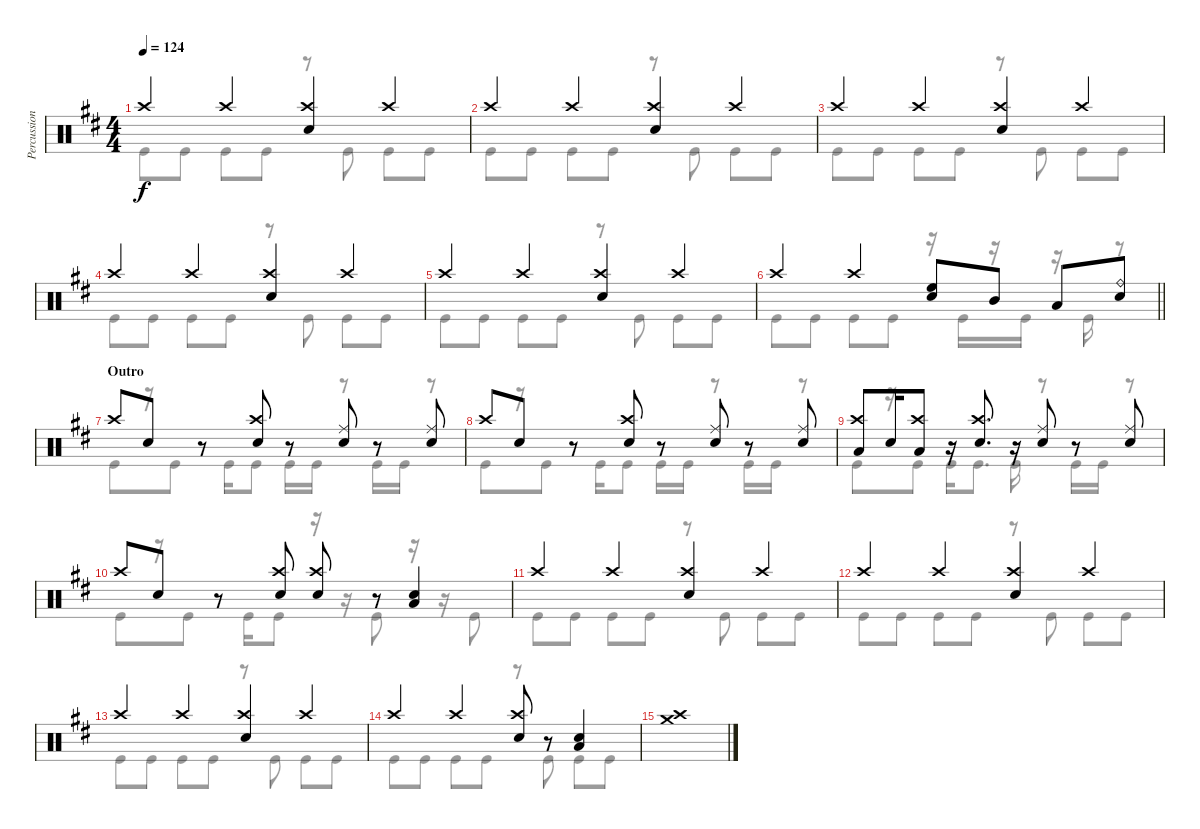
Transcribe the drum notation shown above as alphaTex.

\track ("Percussion" "Percussion") {instrument percussion}
\staff {score}
\articulation defaults
\voice
\ts (4 4)
\tempo 124
\clef neutral
\ks d "Crash high (hit)".4{dy f} "Crash high (hit)".4
("Crash high (hit)" "Snare (hit) 2").4 "Crash high (hit)".4 |
"Crash high (hit)".4 "Crash high (hit)".4 ("Crash high (hit)" "Snare (hit) 2").4 "Crash high (hit)".4 |
"Crash high (hit)".4 "Crash high (hit)".4 ("Crash high (hit)" "Snare (hit) 2").4 "Crash high (hit)".4 |
"Crash high (hit)".4 "Crash high (hit)".4 ("Crash high (hit)" "Snare (hit) 2").4 "Crash high (hit)".4 |
"Crash high (hit)".4 "Crash high (hit)".4 ("Crash high (hit)" "Snare (hit) 2").4 "Crash high (hit)".4 |
\barLineRight lightlight "Crash high (hit)".4 "Crash high (hit)".4
("High Floor Tom (hit)" "Snare (hit) 2").8 "Mid Tom (hit)".8 "Low Tom (hit)".8 ("Ride (bell)" "Snare (hit) 2").8 |
\section ("" "Outro")
"Crash high (hit)".8 "Snare (hit) 2".8 r.8 ("Crash high (hit)" "Snare (hit) 2").8 r.8 ("Ride (middle)" "Snare (hit) 2").8 r.8 ("Ride (middle)" "Snare (hit) 2").8 |
"Crash high (hit)".8 "Snare (hit) 2".8 r.8 ("Crash high (hit)" "Snare (hit) 2").8 r.8 ("Ride (middle)" "Snare (hit) 2").8 r.8 ("Ride (middle)" "Snare (hit) 2").8 |
("Crash high (hit)" "Low Tom (hit)").8 "Snare (hit) 2".16 ("Crash high (hit)" "Low Tom (hit)").8 r.16 ("Crash high (hit)" "Snare (hit) 2").8{d} r.16 ("Ride (middle)" "Snare (hit) 2").8 r.8 ("Ride (middle)" "Snare (hit) 2").8 |
"Crash high (hit)".8 "Snare (hit) 2".8 r.8 ("Crash high (hit)" "Snare (hit) 2").8 ("Crash high (hit)" "Snare (hit) 2").8 r.8 ("Low Tom (hit)" "Snare (hit) 2").4 |
"Crash high (hit)".4 "Crash high (hit)".4 ("Crash high (hit)" "Snare (hit) 2").4 "Crash high (hit)".4 |
"Crash high (hit)".4 "Crash high (hit)".4 ("Crash high (hit)" "Snare (hit) 2").4 "Crash high (hit)".4 |
"Crash high (hit)".4 "Crash high (hit)".4 ("Crash high (hit)" "Snare (hit) 2").4 "Crash high (hit)".4 |
"Crash high (hit)".4 "Crash high (hit)".4 ("Crash high (hit)" "Snare (hit) 2").8 r.8 ("Low Tom (hit)" "Snare (hit) 2").4 |
("Crash high (hit)" "Crash medium (hit)").1
\voice
\clef neutral
\ottava regular
\simile none
\ks d "Kick (hit)".8{dy f} "Kick (hit)".8 "Kick (hit)".8 "Kick (hit)".8
r.8 "Kick (hit)".8 "Kick (hit)".8 "Kick (hit)".8 |
"Kick (hit)".8 "Kick (hit)".8 "Kick (hit)".8 "Kick (hit)".8 r.8 "Kick (hit)".8 "Kick (hit)".8 "Kick (hit)".8 |
"Kick (hit)".8 "Kick (hit)".8 "Kick (hit)".8 "Kick (hit)".8 r.8 "Kick (hit)".8 "Kick (hit)".8 "Kick (hit)".8 |
"Kick (hit)".8 "Kick (hit)".8 "Kick (hit)".8 "Kick (hit)".8 r.8 "Kick (hit)".8 "Kick (hit)".8 "Kick (hit)".8 |
"Kick (hit)".8 "Kick (hit)".8 "Kick (hit)".8 "Kick (hit)".8 r.8 "Kick (hit)".8 "Kick (hit)".8 "Kick (hit)".8 |
\barLineRight lightlight "Kick (hit)".8 "Kick (hit)".8 "Kick (hit)".8 "Kick (hit)".8
r.16 "Kick (hit)".16 r.16 "Kick (hit)".16 r.16 "Kick (hit)".16 r.8 |
"Kick (hit)".8 r.16 "Kick (hit)".8 "Kick (hit)".16 "Kick (hit)".8 "Kick (hit)".16 "Kick (hit)".16 r.8 "Kick (hit)".16 "Kick (hit)".16 r.8 |
"Kick (hit)".8 r.16 "Kick (hit)".8 "Kick (hit)".16 "Kick (hit)".8 "Kick (hit)".16 "Kick (hit)".16 r.8 "Kick (hit)".16 "Kick (hit)".16 r.8 |
"Kick (hit)".8 r.16 "Kick (hit)".8 "Kick (hit)".16 "Kick (hit)".8{d} "Kick (hit)".16 r.8 "Kick (hit)".16 "Kick (hit)".16 r.8 |
"Kick (hit)".8 r.16 "Kick (hit)".8 "Kick (hit)".16 "Kick (hit)".8 r.16 r.16 "Kick (hit)".8 r.16 r.16 "Kick (hit)".8 |
"Kick (hit)".8 "Kick (hit)".8 "Kick (hit)".8 "Kick (hit)".8 r.8 "Kick (hit)".8 "Kick (hit)".8 "Kick (hit)".8 |
"Kick (hit)".8 "Kick (hit)".8 "Kick (hit)".8 "Kick (hit)".8 r.8 "Kick (hit)".8 "Kick (hit)".8 "Kick (hit)".8 |
"Kick (hit)".8 "Kick (hit)".8 "Kick (hit)".8 "Kick (hit)".8 r.8 "Kick (hit)".8 "Kick (hit)".8 "Kick (hit)".8 |
"Kick (hit)".8 "Kick (hit)".8 "Kick (hit)".8 "Kick (hit)".8 r.8 "Kick (hit)".8 "Kick (hit)".8 "Kick (hit)".8 |
